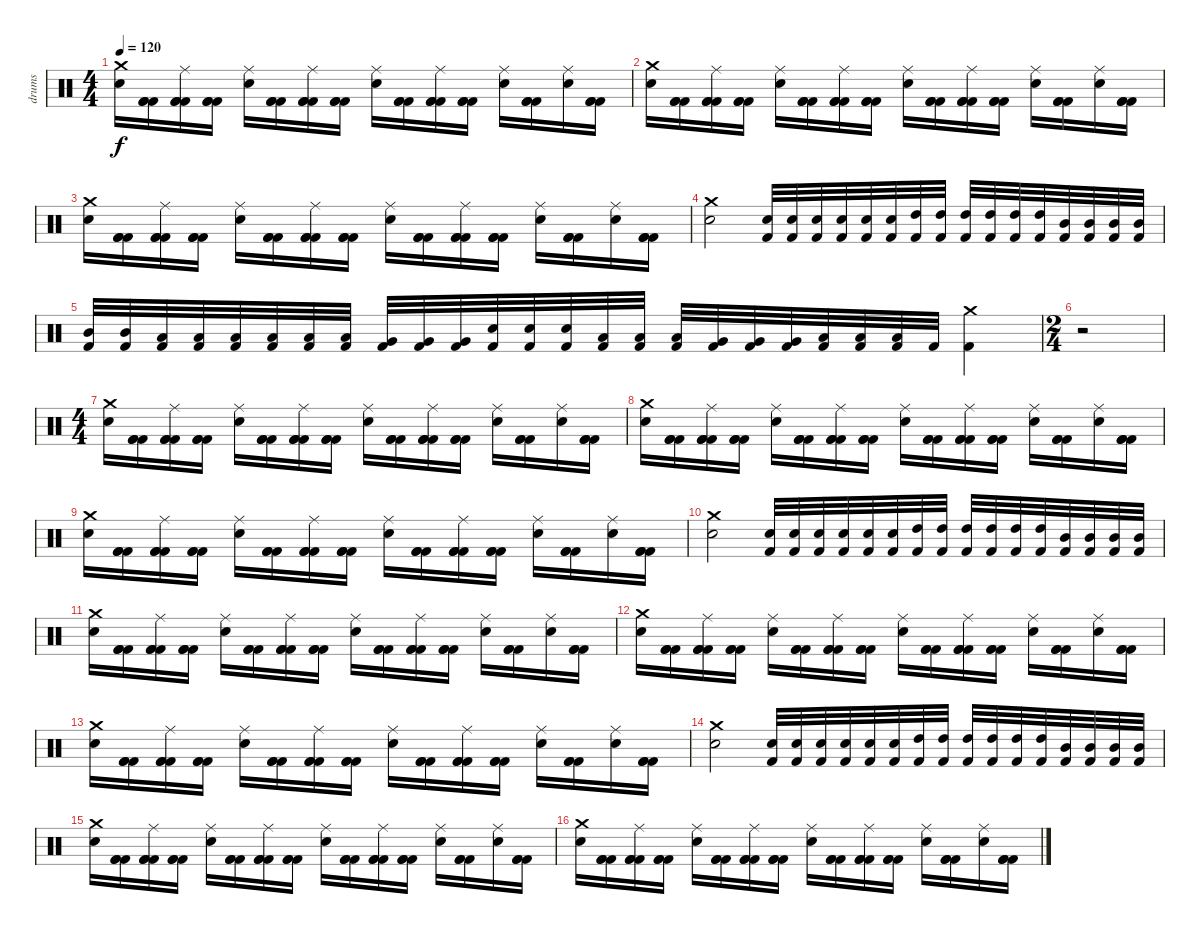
\track ("drums" "drums") {instrument percussion}
\staff {score}
\articulation defaults
\ts (4 4)
\tempo 120
\clef neutral
\ks c
("Crash medium (hit)" "Electric Snare (hit)").16{dy f} ("Kick (hit) 2" "Kick (hit) 2" "Kick (hit) 2").16 ("Ride (middle)" "Kick (hit) 2" "Kick (hit) 2" "Kick (hit) 2").16 ("Kick (hit) 2" "Kick (hit) 2" "Kick (hit) 2").16 ("Ride (middle)" "Electric Snare (hit)").16 ("Kick (hit) 2" "Kick (hit) 2" "Kick (hit) 2").16 ("Ride (middle)" "Kick (hit) 2" "Kick (hit) 2" "Kick (hit) 2").16 ("Kick (hit) 2" "Kick (hit) 2" "Kick (hit) 2").16 ("Ride (middle)" "Electric Snare (hit)").16 ("Kick (hit) 2" "Kick (hit) 2" "Kick (hit) 2").16 ("Ride (middle)" "Kick (hit) 2" "Kick (hit) 2" "Kick (hit) 2").16 ("Kick (hit) 2" "Kick (hit) 2" "Kick (hit) 2").16 ("Ride (middle)" "Electric Snare (hit)").16 ("Kick (hit) 2" "Kick (hit) 2" "Kick (hit) 2").16 ("Ride (middle)" "Electric Snare (hit)").16 ("Kick (hit) 2" "Kick (hit) 2" "Kick (hit) 2").16 |
("Crash medium (hit)" "Electric Snare (hit)").16 ("Kick (hit) 2" "Kick (hit) 2" "Kick (hit) 2").16 ("Ride (middle)" "Kick (hit) 2" "Kick (hit) 2" "Kick (hit) 2").16 ("Kick (hit) 2" "Kick (hit) 2" "Kick (hit) 2").16 ("Ride (middle)" "Electric Snare (hit)").16 ("Kick (hit) 2" "Kick (hit) 2" "Kick (hit) 2").16 ("Ride (middle)" "Kick (hit) 2" "Kick (hit) 2" "Kick (hit) 2").16 ("Kick (hit) 2" "Kick (hit) 2" "Kick (hit) 2").16 ("Ride (middle)" "Electric Snare (hit)").16 ("Kick (hit) 2" "Kick (hit) 2" "Kick (hit) 2").16 ("Ride (middle)" "Kick (hit) 2" "Kick (hit) 2" "Kick (hit) 2").16 ("Kick (hit) 2" "Kick (hit) 2" "Kick (hit) 2").16 ("Ride (middle)" "Electric Snare (hit)").16 ("Kick (hit) 2" "Kick (hit) 2" "Kick (hit) 2").16 ("Ride (middle)" "Electric Snare (hit)").16 ("Kick (hit) 2" "Kick (hit) 2" "Kick (hit) 2").16 |
("Crash medium (hit)" "Electric Snare (hit)").16 ("Kick (hit) 2" "Kick (hit) 2" "Kick (hit) 2").16 ("Ride (middle)" "Kick (hit) 2" "Kick (hit) 2" "Kick (hit) 2").16 ("Kick (hit) 2" "Kick (hit) 2" "Kick (hit) 2").16 ("Ride (middle)" "Electric Snare (hit)").16 ("Kick (hit) 2" "Kick (hit) 2" "Kick (hit) 2").16 ("Ride (middle)" "Kick (hit) 2" "Kick (hit) 2" "Kick (hit) 2").16 ("Kick (hit) 2" "Kick (hit) 2" "Kick (hit) 2").16 ("Ride (middle)" "Electric Snare (hit)").16 ("Kick (hit) 2" "Kick (hit) 2" "Kick (hit) 2").16 ("Ride (middle)" "Kick (hit) 2" "Kick (hit) 2" "Kick (hit) 2").16 ("Kick (hit) 2" "Kick (hit) 2" "Kick (hit) 2").16 ("Ride (middle)" "Electric Snare (hit)").16 ("Kick (hit) 2" "Kick (hit) 2" "Kick (hit) 2").16 ("Ride (middle)" "Electric Snare (hit)").16 ("Kick (hit) 2" "Kick (hit) 2" "Kick (hit) 2").16 |
("Crash medium (hit)" "Electric Snare (hit)").2 ("Electric Snare (hit)" "Kick (hit) 2").32 ("Electric Snare (hit)" "Kick (hit) 2").32 ("Electric Snare (hit)" "Kick (hit) 2").32 ("Electric Snare (hit)" "Kick (hit) 2").32 ("Electric Snare (hit)" "Kick (hit) 2").32 ("Electric Snare (hit)" "Kick (hit) 2").32 ("High Tom (hit)" "Kick (hit) 2").32 ("High Tom (hit)" "Kick (hit) 2").32 ("High Tom (hit)" "Kick (hit) 2").32 ("High Tom (hit)" "Kick (hit) 2").32 ("High Tom (hit)" "Kick (hit) 2").32 ("High Tom (hit)" "Kick (hit) 2").32 ("Mid Tom (hit)" "Kick (hit) 2").32 ("Mid Tom (hit)" "Kick (hit) 2").32 ("Mid Tom (hit)" "Kick (hit) 2").32 ("Mid Tom (hit)" "Kick (hit) 2").32 |
("Mid Tom (hit)" "Kick (hit) 2").32 ("Mid Tom (hit)" "Kick (hit) 2").32 ("Low Tom (hit)" "Kick (hit) 2").32 ("Low Tom (hit)" "Kick (hit) 2").32 ("Low Tom (hit)" "Kick (hit) 2").32 ("Low Tom (hit)" "Kick (hit) 2").32 ("Low Tom (hit)" "Kick (hit) 2").32 ("Low Tom (hit)" "Kick (hit) 2").32 ("Very Low Tom (hit)" "Kick (hit) 2").32 ("Very Low Tom (hit)" "Kick (hit) 2").32 ("Very Low Tom (hit)" "Kick (hit) 2").32 ("Electric Snare (hit)" "Kick (hit) 2").32 ("Electric Snare (hit)" "Kick (hit) 2").32 ("Electric Snare (hit)" "Kick (hit) 2").32 ("Low Tom (hit)" "Kick (hit) 2").32 ("Low Tom (hit)" "Kick (hit) 2").32 ("Low Tom (hit)" "Kick (hit) 2").32 ("Very Low Tom (hit)" "Kick (hit) 2").32 ("Very Low Tom (hit)" "Kick (hit) 2").32 ("Very Low Tom (hit)" "Kick (hit) 2").32 ("Low Floor Tom (hit)" "Kick (hit) 2").32 ("Low Floor Tom (hit)" "Kick (hit) 2").32 ("Low Floor Tom (hit)" "Kick (hit) 2").32 "Kick (hit) 2".32 ("Crash medium (hit)" "Kick (hit) 2").4 |
\ts (2 4)
r.2 |
\ts (4 4)
("Crash medium (hit)" "Electric Snare (hit)").16 ("Kick (hit) 2" "Kick (hit) 2" "Kick (hit) 2").16 ("Ride (middle)" "Kick (hit) 2" "Kick (hit) 2" "Kick (hit) 2").16 ("Kick (hit) 2" "Kick (hit) 2" "Kick (hit) 2").16 ("Ride (middle)" "Electric Snare (hit)").16 ("Kick (hit) 2" "Kick (hit) 2" "Kick (hit) 2").16 ("Ride (middle)" "Kick (hit) 2" "Kick (hit) 2" "Kick (hit) 2").16 ("Kick (hit) 2" "Kick (hit) 2" "Kick (hit) 2").16 ("Ride (middle)" "Electric Snare (hit)").16 ("Kick (hit) 2" "Kick (hit) 2" "Kick (hit) 2").16 ("Ride (middle)" "Kick (hit) 2" "Kick (hit) 2" "Kick (hit) 2").16 ("Kick (hit) 2" "Kick (hit) 2" "Kick (hit) 2").16 ("Ride (middle)" "Electric Snare (hit)").16 ("Kick (hit) 2" "Kick (hit) 2" "Kick (hit) 2").16 ("Ride (middle)" "Electric Snare (hit)").16 ("Kick (hit) 2" "Kick (hit) 2" "Kick (hit) 2").16 |
("Crash medium (hit)" "Electric Snare (hit)").16 ("Kick (hit) 2" "Kick (hit) 2" "Kick (hit) 2").16 ("Ride (middle)" "Kick (hit) 2" "Kick (hit) 2" "Kick (hit) 2").16 ("Kick (hit) 2" "Kick (hit) 2" "Kick (hit) 2").16 ("Ride (middle)" "Electric Snare (hit)").16 ("Kick (hit) 2" "Kick (hit) 2" "Kick (hit) 2").16 ("Ride (middle)" "Kick (hit) 2" "Kick (hit) 2" "Kick (hit) 2").16 ("Kick (hit) 2" "Kick (hit) 2" "Kick (hit) 2").16 ("Ride (middle)" "Electric Snare (hit)").16 ("Kick (hit) 2" "Kick (hit) 2" "Kick (hit) 2").16 ("Ride (middle)" "Kick (hit) 2" "Kick (hit) 2" "Kick (hit) 2").16 ("Kick (hit) 2" "Kick (hit) 2" "Kick (hit) 2").16 ("Ride (middle)" "Electric Snare (hit)").16 ("Kick (hit) 2" "Kick (hit) 2" "Kick (hit) 2").16 ("Ride (middle)" "Electric Snare (hit)").16 ("Kick (hit) 2" "Kick (hit) 2" "Kick (hit) 2").16 |
("Crash medium (hit)" "Electric Snare (hit)").16 ("Kick (hit) 2" "Kick (hit) 2" "Kick (hit) 2").16 ("Ride (middle)" "Kick (hit) 2" "Kick (hit) 2" "Kick (hit) 2").16 ("Kick (hit) 2" "Kick (hit) 2" "Kick (hit) 2").16 ("Ride (middle)" "Electric Snare (hit)").16 ("Kick (hit) 2" "Kick (hit) 2" "Kick (hit) 2").16 ("Ride (middle)" "Kick (hit) 2" "Kick (hit) 2" "Kick (hit) 2").16 ("Kick (hit) 2" "Kick (hit) 2" "Kick (hit) 2").16 ("Ride (middle)" "Electric Snare (hit)").16 ("Kick (hit) 2" "Kick (hit) 2" "Kick (hit) 2").16 ("Ride (middle)" "Kick (hit) 2" "Kick (hit) 2" "Kick (hit) 2").16 ("Kick (hit) 2" "Kick (hit) 2" "Kick (hit) 2").16 ("Ride (middle)" "Electric Snare (hit)").16 ("Kick (hit) 2" "Kick (hit) 2" "Kick (hit) 2").16 ("Ride (middle)" "Electric Snare (hit)").16 ("Kick (hit) 2" "Kick (hit) 2" "Kick (hit) 2").16 |
("Crash medium (hit)" "Electric Snare (hit)").2 ("Electric Snare (hit)" "Kick (hit) 2").32 ("Electric Snare (hit)" "Kick (hit) 2").32 ("Electric Snare (hit)" "Kick (hit) 2").32 ("Electric Snare (hit)" "Kick (hit) 2").32 ("Electric Snare (hit)" "Kick (hit) 2").32 ("Electric Snare (hit)" "Kick (hit) 2").32 ("High Tom (hit)" "Kick (hit) 2").32 ("High Tom (hit)" "Kick (hit) 2").32 ("High Tom (hit)" "Kick (hit) 2").32 ("High Tom (hit)" "Kick (hit) 2").32 ("High Tom (hit)" "Kick (hit) 2").32 ("High Tom (hit)" "Kick (hit) 2").32 ("Mid Tom (hit)" "Kick (hit) 2").32 ("Mid Tom (hit)" "Kick (hit) 2").32 ("Mid Tom (hit)" "Kick (hit) 2").32 ("Mid Tom (hit)" "Kick (hit) 2").32 |
("Crash medium (hit)" "Electric Snare (hit)").16 ("Kick (hit) 2" "Kick (hit) 2" "Kick (hit) 2").16 ("Ride (middle)" "Kick (hit) 2" "Kick (hit) 2" "Kick (hit) 2").16 ("Kick (hit) 2" "Kick (hit) 2" "Kick (hit) 2").16 ("Ride (middle)" "Electric Snare (hit)").16 ("Kick (hit) 2" "Kick (hit) 2" "Kick (hit) 2").16 ("Ride (middle)" "Kick (hit) 2" "Kick (hit) 2" "Kick (hit) 2").16 ("Kick (hit) 2" "Kick (hit) 2" "Kick (hit) 2").16 ("Ride (middle)" "Electric Snare (hit)").16 ("Kick (hit) 2" "Kick (hit) 2" "Kick (hit) 2").16 ("Ride (middle)" "Kick (hit) 2" "Kick (hit) 2" "Kick (hit) 2").16 ("Kick (hit) 2" "Kick (hit) 2" "Kick (hit) 2").16 ("Ride (middle)" "Electric Snare (hit)").16 ("Kick (hit) 2" "Kick (hit) 2" "Kick (hit) 2").16 ("Ride (middle)" "Electric Snare (hit)").16 ("Kick (hit) 2" "Kick (hit) 2" "Kick (hit) 2").16 |
("Crash medium (hit)" "Electric Snare (hit)").16 ("Kick (hit) 2" "Kick (hit) 2" "Kick (hit) 2").16 ("Ride (middle)" "Kick (hit) 2" "Kick (hit) 2" "Kick (hit) 2").16 ("Kick (hit) 2" "Kick (hit) 2" "Kick (hit) 2").16 ("Ride (middle)" "Electric Snare (hit)").16 ("Kick (hit) 2" "Kick (hit) 2" "Kick (hit) 2").16 ("Ride (middle)" "Kick (hit) 2" "Kick (hit) 2" "Kick (hit) 2").16 ("Kick (hit) 2" "Kick (hit) 2" "Kick (hit) 2").16 ("Ride (middle)" "Electric Snare (hit)").16 ("Kick (hit) 2" "Kick (hit) 2" "Kick (hit) 2").16 ("Ride (middle)" "Kick (hit) 2" "Kick (hit) 2" "Kick (hit) 2").16 ("Kick (hit) 2" "Kick (hit) 2" "Kick (hit) 2").16 ("Ride (middle)" "Electric Snare (hit)").16 ("Kick (hit) 2" "Kick (hit) 2" "Kick (hit) 2").16 ("Ride (middle)" "Electric Snare (hit)").16 ("Kick (hit) 2" "Kick (hit) 2" "Kick (hit) 2").16 |
("Crash medium (hit)" "Electric Snare (hit)").16 ("Kick (hit) 2" "Kick (hit) 2" "Kick (hit) 2").16 ("Ride (middle)" "Kick (hit) 2" "Kick (hit) 2" "Kick (hit) 2").16 ("Kick (hit) 2" "Kick (hit) 2" "Kick (hit) 2").16 ("Ride (middle)" "Electric Snare (hit)").16 ("Kick (hit) 2" "Kick (hit) 2" "Kick (hit) 2").16 ("Ride (middle)" "Kick (hit) 2" "Kick (hit) 2" "Kick (hit) 2").16 ("Kick (hit) 2" "Kick (hit) 2" "Kick (hit) 2").16 ("Ride (middle)" "Electric Snare (hit)").16 ("Kick (hit) 2" "Kick (hit) 2" "Kick (hit) 2").16 ("Ride (middle)" "Kick (hit) 2" "Kick (hit) 2" "Kick (hit) 2").16 ("Kick (hit) 2" "Kick (hit) 2" "Kick (hit) 2").16 ("Ride (middle)" "Electric Snare (hit)").16 ("Kick (hit) 2" "Kick (hit) 2" "Kick (hit) 2").16 ("Ride (middle)" "Electric Snare (hit)").16 ("Kick (hit) 2" "Kick (hit) 2" "Kick (hit) 2").16 |
("Crash medium (hit)" "Electric Snare (hit)").2 ("Electric Snare (hit)" "Kick (hit) 2").32 ("Electric Snare (hit)" "Kick (hit) 2").32 ("Electric Snare (hit)" "Kick (hit) 2").32 ("Electric Snare (hit)" "Kick (hit) 2").32 ("Electric Snare (hit)" "Kick (hit) 2").32 ("Electric Snare (hit)" "Kick (hit) 2").32 ("High Tom (hit)" "Kick (hit) 2").32 ("High Tom (hit)" "Kick (hit) 2").32 ("High Tom (hit)" "Kick (hit) 2").32 ("High Tom (hit)" "Kick (hit) 2").32 ("High Tom (hit)" "Kick (hit) 2").32 ("High Tom (hit)" "Kick (hit) 2").32 ("Mid Tom (hit)" "Kick (hit) 2").32 ("Mid Tom (hit)" "Kick (hit) 2").32 ("Mid Tom (hit)" "Kick (hit) 2").32 ("Mid Tom (hit)" "Kick (hit) 2").32 |
("Crash medium (hit)" "Electric Snare (hit)").16 ("Kick (hit) 2" "Kick (hit) 2" "Kick (hit) 2").16 ("Ride (middle)" "Kick (hit) 2" "Kick (hit) 2" "Kick (hit) 2").16 ("Kick (hit) 2" "Kick (hit) 2" "Kick (hit) 2").16 ("Ride (middle)" "Electric Snare (hit)").16 ("Kick (hit) 2" "Kick (hit) 2" "Kick (hit) 2").16 ("Ride (middle)" "Kick (hit) 2" "Kick (hit) 2" "Kick (hit) 2").16 ("Kick (hit) 2" "Kick (hit) 2" "Kick (hit) 2").16 ("Ride (middle)" "Electric Snare (hit)").16 ("Kick (hit) 2" "Kick (hit) 2" "Kick (hit) 2").16 ("Ride (middle)" "Kick (hit) 2" "Kick (hit) 2" "Kick (hit) 2").16 ("Kick (hit) 2" "Kick (hit) 2" "Kick (hit) 2").16 ("Ride (middle)" "Electric Snare (hit)").16 ("Kick (hit) 2" "Kick (hit) 2" "Kick (hit) 2").16 ("Ride (middle)" "Electric Snare (hit)").16 ("Kick (hit) 2" "Kick (hit) 2" "Kick (hit) 2").16 |
("Crash medium (hit)" "Electric Snare (hit)").16 ("Kick (hit) 2" "Kick (hit) 2" "Kick (hit) 2").16 ("Ride (middle)" "Kick (hit) 2" "Kick (hit) 2" "Kick (hit) 2").16 ("Kick (hit) 2" "Kick (hit) 2" "Kick (hit) 2").16 ("Ride (middle)" "Electric Snare (hit)").16 ("Kick (hit) 2" "Kick (hit) 2" "Kick (hit) 2").16 ("Ride (middle)" "Kick (hit) 2" "Kick (hit) 2" "Kick (hit) 2").16 ("Kick (hit) 2" "Kick (hit) 2" "Kick (hit) 2").16 ("Ride (middle)" "Electric Snare (hit)").16 ("Kick (hit) 2" "Kick (hit) 2" "Kick (hit) 2").16 ("Ride (middle)" "Kick (hit) 2" "Kick (hit) 2" "Kick (hit) 2").16 ("Kick (hit) 2" "Kick (hit) 2" "Kick (hit) 2").16 ("Ride (middle)" "Electric Snare (hit)").16 ("Kick (hit) 2" "Kick (hit) 2" "Kick (hit) 2").16 ("Ride (middle)" "Electric Snare (hit)").16 ("Kick (hit) 2" "Kick (hit) 2" "Kick (hit) 2").16
